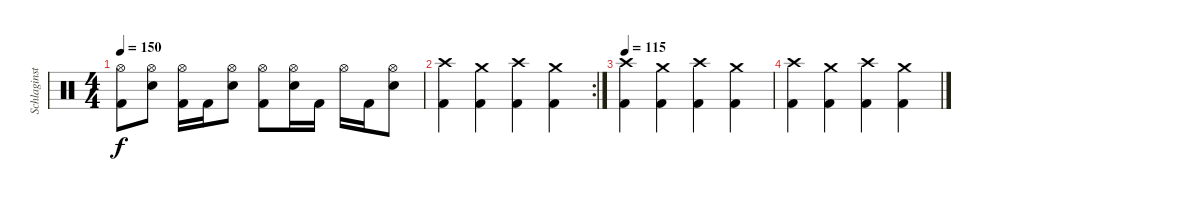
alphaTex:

\track ("Schlaginstrumente - Auswahl" "Schlaginst") {instrument percussion}
\staff {score}
\articulation defaults
\ts (4 4)
\tempo 150
\clef neutral
\ks c
("Hi-Hat (open)" "Kick (hit) 2").8{dy f} ("Electric Snare (hit)" "Hi-Hat (open)").8 ("Hi-Hat (open)" "Kick (hit) 2").16 "Kick (hit) 2".16 ("Hi-Hat (open)" "Electric Snare (hit)").8 ("Hi-Hat (open)" "Kick (hit) 2").8 ("Hi-Hat (open)" "Electric Snare (hit)").16 "Kick (hit) 2".16 "Hi-Hat (open)".16 "Kick (hit) 2".16 ("Hi-Hat (open)" "Electric Snare (hit)").8 |
\rc 2
("Crash high (hit)" "Kick (hit) 2").4 ("Crash medium (hit)" "Kick (hit) 2").4 ("Crash high (hit)" "Kick (hit) 2").4 ("Crash medium (hit)" "Kick (hit) 2").4 |
\tempo 115
("Crash high (hit)" "Kick (hit) 2").4 ("Crash medium (hit)" "Kick (hit) 2").4 ("Crash high (hit)" "Kick (hit) 2").4 ("Crash medium (hit)" "Kick (hit) 2").4 |
("Crash high (hit)" "Kick (hit) 2").4 ("Crash medium (hit)" "Kick (hit) 2").4 ("Crash high (hit)" "Kick (hit) 2").4 ("Crash medium (hit)" "Kick (hit) 2").4
